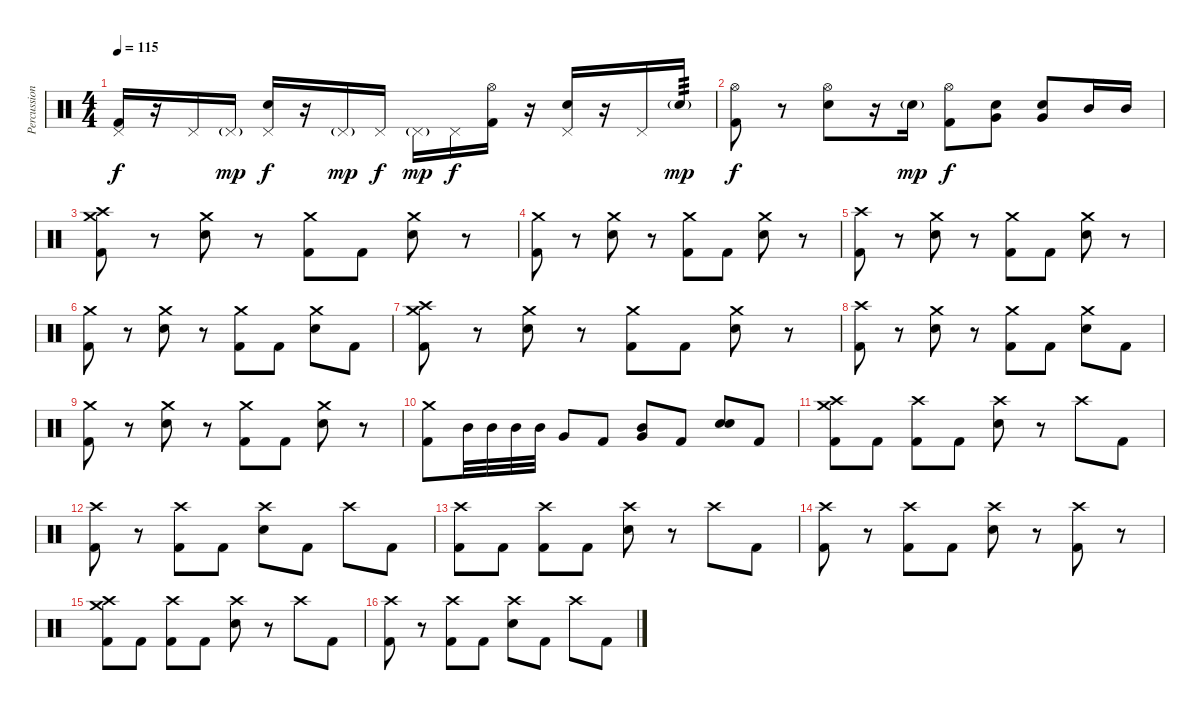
\track ("Percussion" "Percussion") {instrument percussion}
\staff {score}
\articulation defaults
\ts (4 4)
\tempo 115
\clef neutral
\ks c
("Kick (hit) 2" "Pedal Hi-Hat (hit)").16{dy f} r.16 "Pedal Hi-Hat (hit)".16 "Pedal Hi-Hat (hit)"{g}.16{dy mp} ("Electric Snare (hit)" "Pedal Hi-Hat (hit)").16{dy f} r.16 "Pedal Hi-Hat (hit)"{g}.16{dy mp} "Pedal Hi-Hat (hit)".16{dy f} "Pedal Hi-Hat (hit)"{g}.16{dy mp} "Pedal Hi-Hat (hit)".16{dy f} ("Kick (hit) 2" "Hi-Hat (open)").16 r.16 ("Electric Snare (hit)" "Pedal Hi-Hat (hit)").16 r.16 "Pedal Hi-Hat (hit)".16 "Electric Snare (hit)"{g}.16{tp 3 dy mp} |
("Kick (hit) 2" "Hi-Hat (open)").8{dy f} r.8 ("Electric Snare (hit)" "Hi-Hat (open)").8 r.16 "Electric Snare (hit)"{g}.16{dy mp} ("Kick (hit) 2" "Hi-Hat (open)").8{dy f} ("Electric Snare (hit)" "Very Low Tom (hit)").8 ("Electric Snare (hit)" "Very Low Tom (hit)").8 "Mid Tom (hit)".16 "Mid Tom (hit)".16 |
("Kick (hit) 2" "Crash medium (hit)" "Crash high (hit)").8 r.8 ("Electric Snare (hit)" "Crash medium (hit)").8 r.8 ("Kick (hit) 2" "Crash medium (hit)").8 "Kick (hit) 2".8 ("Electric Snare (hit)" "Crash medium (hit)").8 r.8 |
("Kick (hit) 2" "Crash medium (hit)").8 r.8 ("Electric Snare (hit)" "Crash medium (hit)").8 r.8 ("Kick (hit) 2" "Crash medium (hit)").8 "Kick (hit) 2".8 ("Electric Snare (hit)" "Crash medium (hit)").8 r.8 |
("Kick (hit) 2" "Crash high (hit)").8 r.8 ("Electric Snare (hit)" "Crash medium (hit)").8 r.8 ("Kick (hit) 2" "Crash medium (hit)").8 "Kick (hit) 2".8 ("Electric Snare (hit)" "Crash medium (hit)").8 r.8 |
("Kick (hit) 2" "Crash medium (hit)").8 r.8 ("Electric Snare (hit)" "Crash medium (hit)").8 r.8 ("Kick (hit) 2" "Crash medium (hit)").8 "Kick (hit) 2".8 ("Electric Snare (hit)" "Crash medium (hit)").8 "Kick (hit) 2".8 |
("Kick (hit) 2" "Crash medium (hit)" "Crash high (hit)").8 r.8 ("Electric Snare (hit)" "Crash medium (hit)").8 r.8 ("Kick (hit) 2" "Crash medium (hit)").8 "Kick (hit) 2".8 ("Electric Snare (hit)" "Crash medium (hit)").8 r.8 |
("Kick (hit) 2" "Crash high (hit)").8 r.8 ("Electric Snare (hit)" "Crash medium (hit)").8 r.8 ("Kick (hit) 2" "Crash medium (hit)").8 "Kick (hit) 2".8 ("Electric Snare (hit)" "Crash medium (hit)").8 "Kick (hit) 2".8 |
("Kick (hit) 2" "Crash medium (hit)").8 r.8 ("Electric Snare (hit)" "Crash medium (hit)").8 r.8 ("Kick (hit) 2" "Crash medium (hit)").8 "Kick (hit) 2".8 ("Electric Snare (hit)" "Crash medium (hit)").8 r.8 |
("Kick (hit) 2" "Crash medium (hit)").8 "Mid Tom (hit)".32 "Mid Tom (hit)".32 "Mid Tom (hit)".32 "Mid Tom (hit)".32 "Very Low Tom (hit)".8 "Kick (hit) 2".8 ("Very Low Tom (hit)" "Mid Tom (hit)").8 "Kick (hit) 2".8 ("Electric Snare (hit)" "Electric Snare (hit)").8 "Kick (hit) 2".8 |
("Kick (hit) 2" "Crash medium (hit)" "Crash high (hit)").8 "Kick (hit) 2".8 ("Kick (hit) 2" "Crash high (hit)").8 "Kick (hit) 2".8 ("Electric Snare (hit)" "Crash high (hit)").8 r.8 "Crash high (hit)".8 "Kick (hit) 2".8 |
("Kick (hit) 2" "Crash high (hit)").8 r.8 ("Kick (hit) 2" "Crash high (hit)").8 "Kick (hit) 2".8 ("Electric Snare (hit)" "Crash high (hit)").8 "Kick (hit) 2".8 "Crash high (hit)".8 "Kick (hit) 2".8 |
("Kick (hit) 2" "Crash high (hit)").8 "Kick (hit) 2".8 ("Kick (hit) 2" "Crash high (hit)").8 "Kick (hit) 2".8 ("Electric Snare (hit)" "Crash high (hit)").8 r.8 "Crash high (hit)".8 "Kick (hit) 2".8 |
("Kick (hit) 2" "Crash high (hit)").8 r.8 ("Kick (hit) 2" "Crash high (hit)").8 "Kick (hit) 2".8 ("Electric Snare (hit)" "Crash high (hit)").8 r.8 ("Kick (hit) 2" "Crash high (hit)").8 r.8 |
("Kick (hit) 2" "Crash medium (hit)" "Crash high (hit)").8 "Kick (hit) 2".8 ("Kick (hit) 2" "Crash high (hit)").8 "Kick (hit) 2".8 ("Electric Snare (hit)" "Crash high (hit)").8 r.8 "Crash high (hit)".8 "Kick (hit) 2".8 |
("Kick (hit) 2" "Crash high (hit)").8 r.8 ("Kick (hit) 2" "Crash high (hit)").8 "Kick (hit) 2".8 ("Electric Snare (hit)" "Crash high (hit)").8 "Kick (hit) 2".8 "Crash high (hit)".8 "Kick (hit) 2".8
